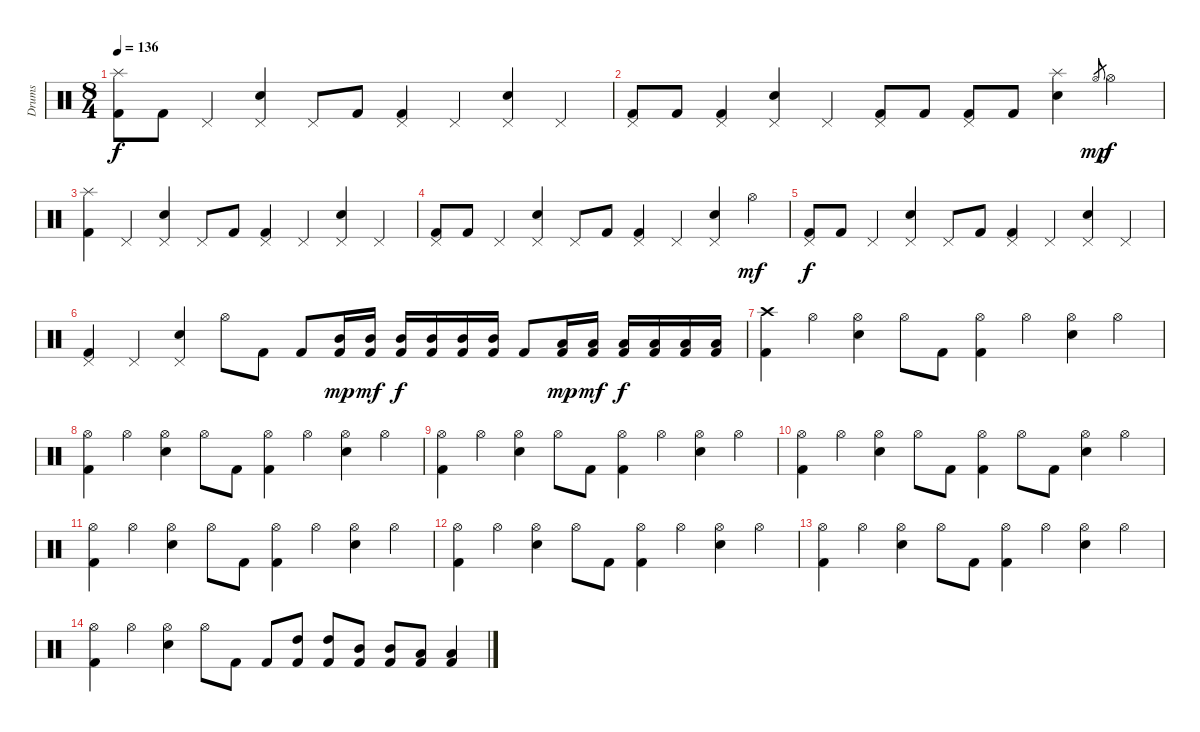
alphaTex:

\track ("Drums" "Drums") {instrument percussion}
\staff {score}
\articulation defaults
\ts (8 4)
\tempo 136
\clef neutral
\ks c
("Splash (hit)" "Kick (hit) 2").8{dy f} "Kick (hit) 2".8 "Pedal Hi-Hat (hit)".4 ("Pedal Hi-Hat (hit)" "Snare (hit) 2").4 "Pedal Hi-Hat (hit)".8 "Kick (hit) 2".8 ("Pedal Hi-Hat (hit)" "Kick (hit) 2").4 "Pedal Hi-Hat (hit)".4 ("Pedal Hi-Hat (hit)" "Snare (hit) 2").4 "Pedal Hi-Hat (hit)".4 |
("Pedal Hi-Hat (hit)" "Kick (hit) 2").8 "Kick (hit) 2".8 ("Pedal Hi-Hat (hit)" "Kick (hit) 2").4 ("Pedal Hi-Hat (hit)" "Snare (hit) 2").4 "Pedal Hi-Hat (hit)".4 ("Pedal Hi-Hat (hit)" "Kick (hit) 2").8 "Kick (hit) 2".8 ("Pedal Hi-Hat (hit)" "Kick (hit) 2").8 "Kick (hit) 2".8 ("Splash (hit)" "Snare (hit) 2").4 "Hi-Hat (open)".8{gr dy mp} "Hi-Hat (open)".4{dy f} |
("Splash (hit)" "Kick (hit) 2").4 "Pedal Hi-Hat (hit)".4 ("Pedal Hi-Hat (hit)" "Snare (hit) 2").4 "Pedal Hi-Hat (hit)".8 "Kick (hit) 2".8 ("Pedal Hi-Hat (hit)" "Kick (hit) 2").4 "Pedal Hi-Hat (hit)".4 ("Pedal Hi-Hat (hit)" "Snare (hit) 2").4 "Pedal Hi-Hat (hit)".4 |
("Pedal Hi-Hat (hit)" "Kick (hit) 2").8 "Kick (hit) 2".8 "Pedal Hi-Hat (hit)".4 ("Pedal Hi-Hat (hit)" "Snare (hit) 2").4 "Pedal Hi-Hat (hit)".8 "Kick (hit) 2".8 ("Pedal Hi-Hat (hit)" "Kick (hit) 2").4 "Pedal Hi-Hat (hit)".4 ("Pedal Hi-Hat (hit)" "Snare (hit) 2").4 "Hi-Hat (open)".4{dy mf} |
("Pedal Hi-Hat (hit)" "Kick (hit) 2").8{dy f} "Kick (hit) 2".8 "Pedal Hi-Hat (hit)".4 ("Pedal Hi-Hat (hit)" "Snare (hit) 2").4 "Pedal Hi-Hat (hit)".8 "Kick (hit) 2".8 ("Pedal Hi-Hat (hit)" "Kick (hit) 2").4 "Pedal Hi-Hat (hit)".4 ("Pedal Hi-Hat (hit)" "Snare (hit) 2").4 "Pedal Hi-Hat (hit)".4 |
("Pedal Hi-Hat (hit)" "Kick (hit) 2").4 "Pedal Hi-Hat (hit)".4 ("Pedal Hi-Hat (hit)" "Snare (hit) 2").4 "Hi-Hat (open)".8 "Kick (hit) 2".8 "Kick (hit) 2".8 ("Mid Tom (hit)" "Kick (hit) 2").16{dy mp} ("Mid Tom (hit)" "Kick (hit) 2").16{dy mf} ("Mid Tom (hit)" "Kick (hit) 2").16{dy f} ("Mid Tom (hit)" "Kick (hit) 2").16 ("Mid Tom (hit)" "Kick (hit) 2").16 ("Mid Tom (hit)" "Kick (hit) 2").16 "Kick (hit) 2".8 ("Low Tom (hit)" "Kick (hit) 2").16{dy mp} ("Low Tom (hit)" "Kick (hit) 2").16{dy mf} ("Low Tom (hit)" "Kick (hit) 2").16{dy f} ("Low Tom (hit)" "Kick (hit) 2").16 ("Low Tom (hit)" "Kick (hit) 2").16 ("Low Tom (hit)" "Kick (hit) 2").16 |
("Crash high (hit)" "Kick (hit) 2").4 "Hi-Hat (open)".4 ("Hi-Hat (open)" "Snare (hit) 2").4 "Hi-Hat (open)".8 "Kick (hit) 2".8 ("Hi-Hat (open)" "Kick (hit) 2").4 "Hi-Hat (open)".4 ("Hi-Hat (open)" "Snare (hit) 2").4 "Hi-Hat (open)".4 |
("Hi-Hat (open)" "Kick (hit) 2").4 "Hi-Hat (open)".4 ("Hi-Hat (open)" "Snare (hit) 2").4 "Hi-Hat (open)".8 "Kick (hit) 2".8 ("Hi-Hat (open)" "Kick (hit) 2").4 "Hi-Hat (open)".4 ("Hi-Hat (open)" "Snare (hit) 2").4 "Hi-Hat (open)".4 |
("Hi-Hat (open)" "Kick (hit) 2").4 "Hi-Hat (open)".4 ("Hi-Hat (open)" "Snare (hit) 2").4 "Hi-Hat (open)".8 "Kick (hit) 2".8 ("Hi-Hat (open)" "Kick (hit) 2").4 "Hi-Hat (open)".4 ("Hi-Hat (open)" "Snare (hit) 2").4 "Hi-Hat (open)".4 |
("Hi-Hat (open)" "Kick (hit) 2").4 "Hi-Hat (open)".4 ("Hi-Hat (open)" "Snare (hit) 2").4 "Hi-Hat (open)".8 "Kick (hit) 2".8 ("Hi-Hat (open)" "Kick (hit) 2").4 "Hi-Hat (open)".8 "Kick (hit) 2".8 ("Hi-Hat (open)" "Snare (hit) 2").4 "Hi-Hat (open)".4 |
("Hi-Hat (open)" "Kick (hit) 2").4 "Hi-Hat (open)".4 ("Hi-Hat (open)" "Snare (hit) 2").4 "Hi-Hat (open)".8 "Kick (hit) 2".8 ("Hi-Hat (open)" "Kick (hit) 2").4 "Hi-Hat (open)".4 ("Hi-Hat (open)" "Snare (hit) 2").4 "Hi-Hat (open)".4 |
("Hi-Hat (open)" "Kick (hit) 2").4 "Hi-Hat (open)".4 ("Hi-Hat (open)" "Snare (hit) 2").4 "Hi-Hat (open)".8 "Kick (hit) 2".8 ("Hi-Hat (open)" "Kick (hit) 2").4 "Hi-Hat (open)".4 ("Hi-Hat (open)" "Snare (hit) 2").4 "Hi-Hat (open)".4 |
("Hi-Hat (open)" "Kick (hit) 2").4 "Hi-Hat (open)".4 ("Hi-Hat (open)" "Snare (hit) 2").4 "Hi-Hat (open)".8 "Kick (hit) 2".8 ("Hi-Hat (open)" "Kick (hit) 2").4 "Hi-Hat (open)".4 ("Hi-Hat (open)" "Snare (hit) 2").4 "Hi-Hat (open)".4 |
("Hi-Hat (open)" "Kick (hit) 2").4 "Hi-Hat (open)".4 ("Hi-Hat (open)" "Snare (hit) 2").4 "Hi-Hat (open)".8 "Kick (hit) 2".8 "Kick (hit) 2".8 ("High Tom (hit)" "Kick (hit) 2").8 ("High Tom (hit)" "Kick (hit) 2").8 ("Mid Tom (hit)" "Kick (hit) 2").8 ("Mid Tom (hit)" "Kick (hit) 2").8 ("Low Tom (hit)" "Kick (hit) 2").8 ("Low Tom (hit)" "Kick (hit) 2").4
